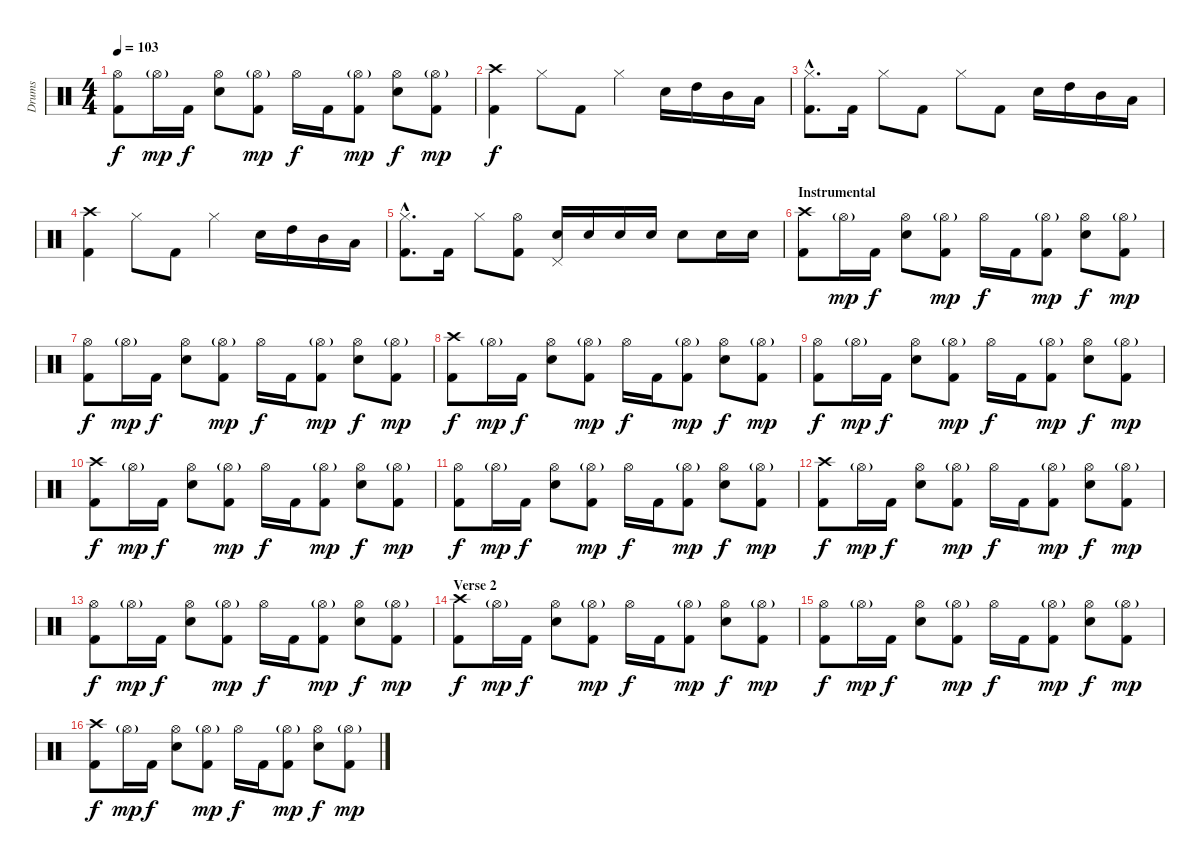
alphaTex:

\track ("Drums" "Drums") {instrument percussion}
\staff {score}
\articulation defaults
\ts (4 4)
\tempo 103
\clef neutral
\ks c
("Hi-Hat (open)" "Kick (hit) 2").8{dy f} "Hi-Hat (open)"{g}.16{dy mp} "Kick (hit) 2".16{dy f} ("Hi-Hat (open)" "Snare (hit) 2").8 ("Hi-Hat (open)"{g} "Kick (hit) 2").8{dy mp} "Hi-Hat (open)".16{dy f} "Kick (hit) 2".16 ("Hi-Hat (open)"{g} "Kick (hit) 2").8{dy mp} ("Hi-Hat (open)" "Snare (hit) 2").8{dy f} ("Hi-Hat (open)"{g} "Kick (hit) 2").8{dy mp} |
("Crash high (hit)" "Kick (hit) 2").4{dy f} "Hi-Hat (closed)".8 "Kick (hit) 2".8 "Hi-Hat (closed)".4 "Snare (hit) 2".16 "High Tom (hit)".16 "Mid Tom (hit)".16 "Low Floor Tom (hit)".16 |
("Hi-Hat (closed)"{hac} "Kick (hit) 2"{hac}).8{d} "Kick (hit) 2".16 "Hi-Hat (closed)".8 "Kick (hit) 2".8 "Hi-Hat (closed)".8 "Kick (hit) 2".8 "Snare (hit) 2".16 "High Tom (hit)".16 "Mid Tom (hit)".16 "Low Floor Tom (hit)".16 |
("Crash high (hit)" "Kick (hit) 2").4 "Hi-Hat (closed)".8 "Kick (hit) 2".8 "Hi-Hat (closed)".4 "Snare (hit) 2".16 "High Tom (hit)".16 "Mid Tom (hit)".16 "Low Floor Tom (hit)".16 |
("Hi-Hat (closed)"{hac} "Kick (hit) 2"{hac}).8{d} "Kick (hit) 2".16 "Hi-Hat (closed)".8 ("Hi-Hat (open)" "Kick (hit) 2").8 ("Snare (hit) 2" "Pedal Hi-Hat (hit)").16 "Snare (hit) 2".16 "Snare (hit) 2".16 "Snare (hit) 2".16 "Snare (hit) 2".8 "Snare (hit) 2".16 "Snare (hit) 2".16 |
\section ("" "Instrumental")
("Crash high (hit)" "Kick (hit) 2").8 "Hi-Hat (open)"{g}.16{dy mp} "Kick (hit) 2".16{dy f} ("Hi-Hat (open)" "Snare (hit) 2").8 ("Hi-Hat (open)"{g} "Kick (hit) 2").8{dy mp} "Hi-Hat (open)".16{dy f} "Kick (hit) 2".16 ("Hi-Hat (open)"{g} "Kick (hit) 2").8{dy mp} ("Hi-Hat (open)" "Snare (hit) 2").8{dy f} ("Hi-Hat (open)"{g} "Kick (hit) 2").8{dy mp} |
("Hi-Hat (open)" "Kick (hit) 2").8{dy f} "Hi-Hat (open)"{g}.16{dy mp} "Kick (hit) 2".16{dy f} ("Hi-Hat (open)" "Snare (hit) 2").8 ("Hi-Hat (open)"{g} "Kick (hit) 2").8{dy mp} "Hi-Hat (open)".16{dy f} "Kick (hit) 2".16 ("Hi-Hat (open)"{g} "Kick (hit) 2").8{dy mp} ("Hi-Hat (open)" "Snare (hit) 2").8{dy f} ("Hi-Hat (open)"{g} "Kick (hit) 2").8{dy mp} |
("Crash high (hit)" "Kick (hit) 2").8{dy f} "Hi-Hat (open)"{g}.16{dy mp} "Kick (hit) 2".16{dy f} ("Hi-Hat (open)" "Snare (hit) 2").8 ("Hi-Hat (open)"{g} "Kick (hit) 2").8{dy mp} "Hi-Hat (open)".16{dy f} "Kick (hit) 2".16 ("Hi-Hat (open)"{g} "Kick (hit) 2").8{dy mp} ("Hi-Hat (open)" "Snare (hit) 2").8{dy f} ("Hi-Hat (open)"{g} "Kick (hit) 2").8{dy mp} |
("Hi-Hat (open)" "Kick (hit) 2").8{dy f} "Hi-Hat (open)"{g}.16{dy mp} "Kick (hit) 2".16{dy f} ("Hi-Hat (open)" "Snare (hit) 2").8 ("Hi-Hat (open)"{g} "Kick (hit) 2").8{dy mp} "Hi-Hat (open)".16{dy f} "Kick (hit) 2".16 ("Hi-Hat (open)"{g} "Kick (hit) 2").8{dy mp} ("Hi-Hat (open)" "Snare (hit) 2").8{dy f} ("Hi-Hat (open)"{g} "Kick (hit) 2").8{dy mp} |
("Crash high (hit)" "Kick (hit) 2").8{dy f} "Hi-Hat (open)"{g}.16{dy mp} "Kick (hit) 2".16{dy f} ("Hi-Hat (open)" "Snare (hit) 2").8 ("Hi-Hat (open)"{g} "Kick (hit) 2").8{dy mp} "Hi-Hat (open)".16{dy f} "Kick (hit) 2".16 ("Hi-Hat (open)"{g} "Kick (hit) 2").8{dy mp} ("Hi-Hat (open)" "Snare (hit) 2").8{dy f} ("Hi-Hat (open)"{g} "Kick (hit) 2").8{dy mp} |
("Hi-Hat (open)" "Kick (hit) 2").8{dy f} "Hi-Hat (open)"{g}.16{dy mp} "Kick (hit) 2".16{dy f} ("Hi-Hat (open)" "Snare (hit) 2").8 ("Hi-Hat (open)"{g} "Kick (hit) 2").8{dy mp} "Hi-Hat (open)".16{dy f} "Kick (hit) 2".16 ("Hi-Hat (open)"{g} "Kick (hit) 2").8{dy mp} ("Hi-Hat (open)" "Snare (hit) 2").8{dy f} ("Hi-Hat (open)"{g} "Kick (hit) 2").8{dy mp} |
("Crash high (hit)" "Kick (hit) 2").8{dy f} "Hi-Hat (open)"{g}.16{dy mp} "Kick (hit) 2".16{dy f} ("Hi-Hat (open)" "Snare (hit) 2").8 ("Hi-Hat (open)"{g} "Kick (hit) 2").8{dy mp} "Hi-Hat (open)".16{dy f} "Kick (hit) 2".16 ("Hi-Hat (open)"{g} "Kick (hit) 2").8{dy mp} ("Hi-Hat (open)" "Snare (hit) 2").8{dy f} ("Hi-Hat (open)"{g} "Kick (hit) 2").8{dy mp} |
("Hi-Hat (open)" "Kick (hit) 2").8{dy f} "Hi-Hat (open)"{g}.16{dy mp} "Kick (hit) 2".16{dy f} ("Hi-Hat (open)" "Snare (hit) 2").8 ("Hi-Hat (open)"{g} "Kick (hit) 2").8{dy mp} "Hi-Hat (open)".16{dy f} "Kick (hit) 2".16 ("Hi-Hat (open)"{g} "Kick (hit) 2").8{dy mp} ("Hi-Hat (open)" "Snare (hit) 2").8{dy f} ("Hi-Hat (open)"{g} "Kick (hit) 2").8{dy mp} |
\section ("" "Verse 2")
("Crash high (hit)" "Kick (hit) 2").8{dy f} "Hi-Hat (open)"{g}.16{dy mp} "Kick (hit) 2".16{dy f} ("Hi-Hat (open)" "Snare (hit) 2").8 ("Hi-Hat (open)"{g} "Kick (hit) 2").8{dy mp} "Hi-Hat (open)".16{dy f} "Kick (hit) 2".16 ("Hi-Hat (open)"{g} "Kick (hit) 2").8{dy mp} ("Hi-Hat (open)" "Snare (hit) 2").8{dy f} ("Hi-Hat (open)"{g} "Kick (hit) 2").8{dy mp} |
("Hi-Hat (open)" "Kick (hit) 2").8{dy f} "Hi-Hat (open)"{g}.16{dy mp} "Kick (hit) 2".16{dy f} ("Hi-Hat (open)" "Snare (hit) 2").8 ("Hi-Hat (open)"{g} "Kick (hit) 2").8{dy mp} "Hi-Hat (open)".16{dy f} "Kick (hit) 2".16 ("Hi-Hat (open)"{g} "Kick (hit) 2").8{dy mp} ("Hi-Hat (open)" "Snare (hit) 2").8{dy f} ("Hi-Hat (open)"{g} "Kick (hit) 2").8{dy mp} |
("Crash high (hit)" "Kick (hit) 2").8{dy f} "Hi-Hat (open)"{g}.16{dy mp} "Kick (hit) 2".16{dy f} ("Hi-Hat (open)" "Snare (hit) 2").8 ("Hi-Hat (open)"{g} "Kick (hit) 2").8{dy mp} "Hi-Hat (open)".16{dy f} "Kick (hit) 2".16 ("Hi-Hat (open)"{g} "Kick (hit) 2").8{dy mp} ("Hi-Hat (open)" "Snare (hit) 2").8{dy f} ("Hi-Hat (open)"{g} "Kick (hit) 2").8{dy mp}
